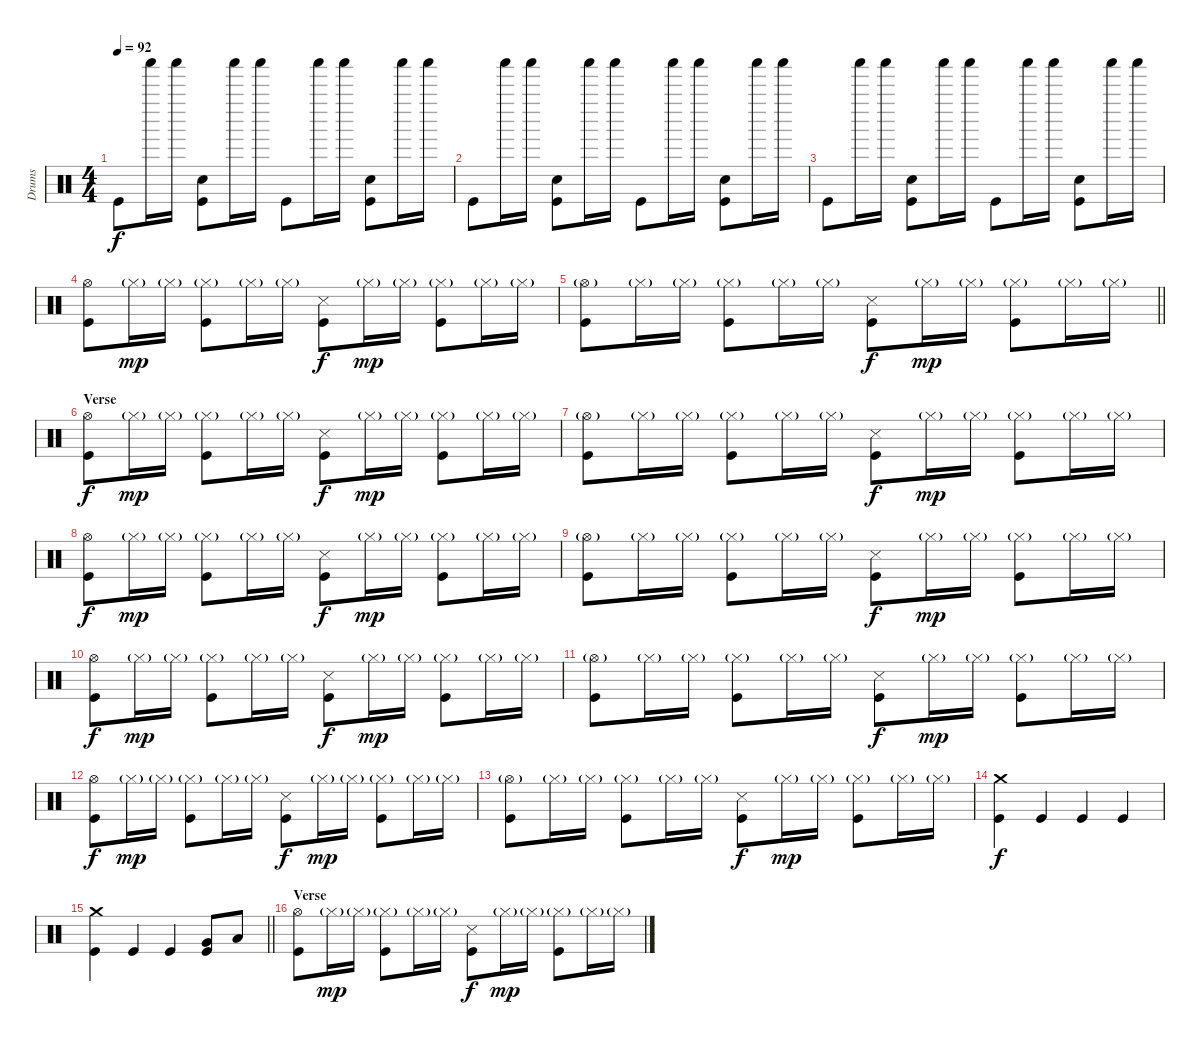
\track ("Drums" "Drums") {instrument percussion}
\staff {score}
\articulation defaults
\ts (4 4)
\tempo 92
\clef neutral
\ks c "Kick (hit)".8{dy f} "Shaker (hit)".16 "Shaker (hit)".16
("Snare (hit) 2" "Kick (hit)").8 "Shaker (hit)".16 "Shaker (hit)".16 "Kick (hit)".8 "Shaker (hit)".16 "Shaker (hit)".16 ("Snare (hit) 2" "Kick (hit)").8 "Shaker (hit)".16 "Shaker (hit)".16 |
"Kick (hit)".8 "Shaker (hit)".16 "Shaker (hit)".16 ("Snare (hit) 2" "Kick (hit)").8 "Shaker (hit)".16 "Shaker (hit)".16 "Kick (hit)".8 "Shaker (hit)".16 "Shaker (hit)".16 ("Snare (hit) 2" "Kick (hit)").8 "Shaker (hit)".16 "Shaker (hit)".16 |
"Kick (hit)".8 "Shaker (hit)".16 "Shaker (hit)".16 ("Snare (hit) 2" "Kick (hit)").8 "Shaker (hit)".16 "Shaker (hit)".16 "Kick (hit)".8 "Shaker (hit)".16 "Shaker (hit)".16 ("Snare (hit) 2" "Kick (hit)").8 "Shaker (hit)".16 "Shaker (hit)".16 |
("Hi-Hat (open)" "Kick (hit)").8 "Hi-Hat (closed)"{g}.16{dy mp} "Hi-Hat (closed)"{g}.16 ("Hi-Hat (closed)"{g} "Kick (hit)").8 "Hi-Hat (closed)"{g}.16 "Hi-Hat (closed)"{g}.16 ("Metronome (hit)" "Kick (hit)").8{dy f} "Hi-Hat (closed)"{g}.16{dy mp} "Hi-Hat (closed)"{g}.16 ("Hi-Hat (closed)"{g} "Kick (hit)").8 "Hi-Hat (closed)"{g}.16 "Hi-Hat (closed)"{g}.16 |
\barLineRight lightlight
("Hi-Hat (open)"{g} "Kick (hit)").8 "Hi-Hat (closed)"{g}.16 "Hi-Hat (closed)"{g}.16 ("Hi-Hat (closed)"{g} "Kick (hit)").8 "Hi-Hat (closed)"{g}.16 "Hi-Hat (closed)"{g}.16 ("Metronome (hit)" "Kick (hit)").8{dy f} "Hi-Hat (closed)"{g}.16{dy mp} "Hi-Hat (closed)"{g}.16 ("Hi-Hat (closed)"{g} "Kick (hit)").8 "Hi-Hat (closed)"{g}.16 "Hi-Hat (closed)"{g}.16 |
\section ("" "Verse")
("Hi-Hat (open)" "Kick (hit)").8{dy f} "Hi-Hat (closed)"{g}.16{dy mp} "Hi-Hat (closed)"{g}.16 ("Hi-Hat (closed)"{g} "Kick (hit)").8 "Hi-Hat (closed)"{g}.16 "Hi-Hat (closed)"{g}.16 ("Metronome (hit)" "Kick (hit)").8{dy f} "Hi-Hat (closed)"{g}.16{dy mp} "Hi-Hat (closed)"{g}.16 ("Hi-Hat (closed)"{g} "Kick (hit)").8 "Hi-Hat (closed)"{g}.16 "Hi-Hat (closed)"{g}.16 |
("Hi-Hat (open)"{g} "Kick (hit)").8 "Hi-Hat (closed)"{g}.16 "Hi-Hat (closed)"{g}.16 ("Hi-Hat (closed)"{g} "Kick (hit)").8 "Hi-Hat (closed)"{g}.16 "Hi-Hat (closed)"{g}.16 ("Metronome (hit)" "Kick (hit)").8{dy f} "Hi-Hat (closed)"{g}.16{dy mp} "Hi-Hat (closed)"{g}.16 ("Hi-Hat (closed)"{g} "Kick (hit)").8 "Hi-Hat (closed)"{g}.16 "Hi-Hat (closed)"{g}.16 |
("Hi-Hat (open)" "Kick (hit)").8{dy f} "Hi-Hat (closed)"{g}.16{dy mp} "Hi-Hat (closed)"{g}.16 ("Hi-Hat (closed)"{g} "Kick (hit)").8 "Hi-Hat (closed)"{g}.16 "Hi-Hat (closed)"{g}.16 ("Metronome (hit)" "Kick (hit)").8{dy f} "Hi-Hat (closed)"{g}.16{dy mp} "Hi-Hat (closed)"{g}.16 ("Hi-Hat (closed)"{g} "Kick (hit)").8 "Hi-Hat (closed)"{g}.16 "Hi-Hat (closed)"{g}.16 |
("Hi-Hat (open)"{g} "Kick (hit)").8 "Hi-Hat (closed)"{g}.16 "Hi-Hat (closed)"{g}.16 ("Hi-Hat (closed)"{g} "Kick (hit)").8 "Hi-Hat (closed)"{g}.16 "Hi-Hat (closed)"{g}.16 ("Metronome (hit)" "Kick (hit)").8{dy f} "Hi-Hat (closed)"{g}.16{dy mp} "Hi-Hat (closed)"{g}.16 ("Hi-Hat (closed)"{g} "Kick (hit)").8 "Hi-Hat (closed)"{g}.16 "Hi-Hat (closed)"{g}.16 |
("Hi-Hat (open)" "Kick (hit)").8{dy f} "Hi-Hat (closed)"{g}.16{dy mp} "Hi-Hat (closed)"{g}.16 ("Hi-Hat (closed)"{g} "Kick (hit)").8 "Hi-Hat (closed)"{g}.16 "Hi-Hat (closed)"{g}.16 ("Metronome (hit)" "Kick (hit)").8{dy f} "Hi-Hat (closed)"{g}.16{dy mp} "Hi-Hat (closed)"{g}.16 ("Hi-Hat (closed)"{g} "Kick (hit)").8 "Hi-Hat (closed)"{g}.16 "Hi-Hat (closed)"{g}.16 |
("Hi-Hat (open)"{g} "Kick (hit)").8 "Hi-Hat (closed)"{g}.16 "Hi-Hat (closed)"{g}.16 ("Hi-Hat (closed)"{g} "Kick (hit)").8 "Hi-Hat (closed)"{g}.16 "Hi-Hat (closed)"{g}.16 ("Metronome (hit)" "Kick (hit)").8{dy f} "Hi-Hat (closed)"{g}.16{dy mp} "Hi-Hat (closed)"{g}.16 ("Hi-Hat (closed)"{g} "Kick (hit)").8 "Hi-Hat (closed)"{g}.16 "Hi-Hat (closed)"{g}.16 |
("Hi-Hat (open)" "Kick (hit)").8{dy f} "Hi-Hat (closed)"{g}.16{dy mp} "Hi-Hat (closed)"{g}.16 ("Hi-Hat (closed)"{g} "Kick (hit)").8 "Hi-Hat (closed)"{g}.16 "Hi-Hat (closed)"{g}.16 ("Metronome (hit)" "Kick (hit)").8{dy f} "Hi-Hat (closed)"{g}.16{dy mp} "Hi-Hat (closed)"{g}.16 ("Hi-Hat (closed)"{g} "Kick (hit)").8 "Hi-Hat (closed)"{g}.16 "Hi-Hat (closed)"{g}.16 |
("Hi-Hat (open)"{g} "Kick (hit)").8 "Hi-Hat (closed)"{g}.16 "Hi-Hat (closed)"{g}.16 ("Hi-Hat (closed)"{g} "Kick (hit)").8 "Hi-Hat (closed)"{g}.16 "Hi-Hat (closed)"{g}.16 ("Metronome (hit)" "Kick (hit)").8{dy f} "Hi-Hat (closed)"{g}.16{dy mp} "Hi-Hat (closed)"{g}.16 ("Hi-Hat (closed)"{g} "Kick (hit)").8 "Hi-Hat (closed)"{g}.16 "Hi-Hat (closed)"{g}.16 |
("Crash medium (hit)" "Kick (hit)").4{dy f} "Kick (hit)".4 "Kick (hit)".4 "Kick (hit)".4 |
\barLineRight lightlight
("Crash medium (hit)" "Kick (hit)").4 "Kick (hit)".4 "Kick (hit)".4 ("Very Low Tom (hit)" "Kick (hit)").8 "Low Floor Tom (hit)".8 |
\section ("" "Verse")
("Hi-Hat (open)" "Kick (hit)").8 "Hi-Hat (closed)"{g}.16{dy mp} "Hi-Hat (closed)"{g}.16 ("Hi-Hat (closed)"{g} "Kick (hit)").8 "Hi-Hat (closed)"{g}.16 "Hi-Hat (closed)"{g}.16 ("Metronome (hit)" "Kick (hit)").8{dy f} "Hi-Hat (closed)"{g}.16{dy mp} "Hi-Hat (closed)"{g}.16 ("Hi-Hat (closed)"{g} "Kick (hit)").8 "Hi-Hat (closed)"{g}.16 "Hi-Hat (closed)"{g}.16
